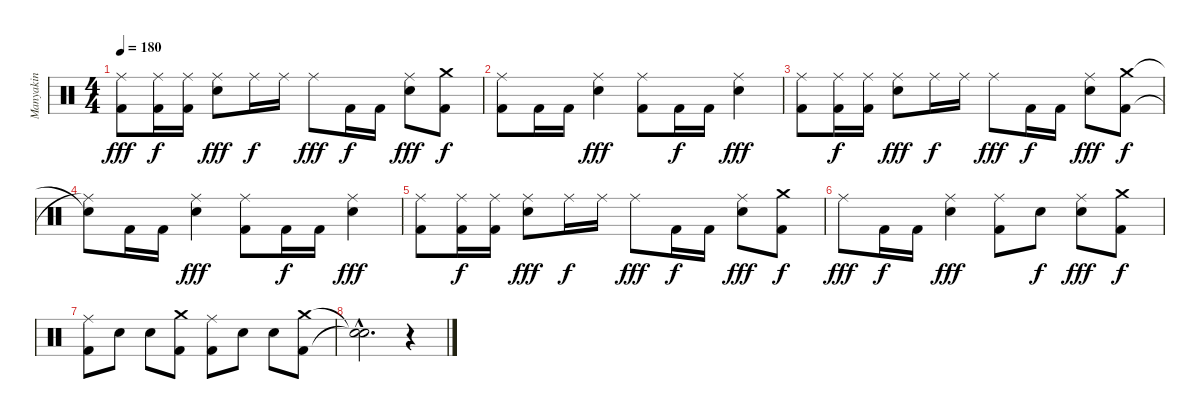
\track ("Manyakin" "Manyakin") {instrument percussion}
\staff {score}
\articulation defaults
\ts (4 4)
\tempo 180
\clef neutral
\ks c
("Kick (hit) 2" "Ride (middle)").8{dy fff} ("Kick (hit) 2" "Ride (middle)").16{dy f} ("Kick (hit) 2" "Ride (middle)").16 ("Snare (hit) 2" "Ride (middle)").8{dy fff} "Ride (middle)".16{dy f} "Ride (middle)".16 "Ride (middle)".8{dy fff} "Kick (hit) 2".16{dy f} "Kick (hit) 2".16 ("Snare (hit) 2" "Ride (middle)").8{dy fff} ("Kick (hit) 2" "Crash medium (hit)").8{dy f} |
("Ride (middle)" "Kick (hit) 2").8 "Kick (hit) 2".16 "Kick (hit) 2".16 ("Snare (hit) 2" "Ride (middle)").4{dy fff} ("Kick (hit) 2" "Ride (middle)").8 "Kick (hit) 2".16{dy f} "Kick (hit) 2".16 ("Snare (hit) 2" "Ride (middle)").4{dy fff} |
("Kick (hit) 2" "Ride (middle)").8 ("Kick (hit) 2" "Ride (middle)").16{dy f} ("Kick (hit) 2" "Ride (middle)").16 ("Snare (hit) 2" "Ride (middle)").8{dy fff} "Ride (middle)".16{dy f} "Ride (middle)".16 "Ride (middle)".8{dy fff} "Kick (hit) 2".16{dy f} "Kick (hit) 2".16 ("Snare (hit) 2" "Ride (middle)").8{dy fff} ("Kick (hit) 2" "Crash medium (hit)").8{dy f} |
("Ride (middle)"{t} "Snare (hit)"{t}).8 "Kick (hit) 2".16 "Kick (hit) 2".16 ("Snare (hit) 2" "Ride (middle)").4{dy fff} ("Kick (hit) 2" "Ride (middle)").8 "Kick (hit) 2".16{dy f} "Kick (hit) 2".16 ("Snare (hit) 2" "Ride (middle)").4{dy fff} |
("Kick (hit) 2" "Ride (middle)").8 ("Kick (hit) 2" "Ride (middle)").16{dy f} ("Kick (hit) 2" "Ride (middle)").16 ("Snare (hit) 2" "Ride (middle)").8{dy fff} "Ride (middle)".16{dy f} "Ride (middle)".16 "Ride (middle)".8{dy fff} "Kick (hit) 2".16{dy f} "Kick (hit) 2".16 ("Snare (hit) 2" "Ride (middle)").8{dy fff} ("Kick (hit) 2" "Crash medium (hit)").8{dy f} |
"Ride (middle)".8{dy fff} "Kick (hit) 2".16{dy f} "Kick (hit) 2".16 ("Snare (hit) 2" "Ride (middle)").4{dy fff} ("Kick (hit) 2" "Ride (middle)").8 "Snare (hit) 2".8{dy f} ("Snare (hit) 2" "Ride (middle)").8{dy fff} ("Kick (hit) 2" "Crash medium (hit)").8{dy f} |
("Kick (hit) 2" "Ride (middle)").8 "Snare (hit) 2".8 "Snare (hit) 2".8 ("Kick (hit) 2" "Crash medium (hit)").8 ("Kick (hit) 2" "Ride (middle)").8 "Snare (hit) 2".8 "Snare (hit) 2".8 ("Kick (hit) 2" "Crash medium (hit)").8 |
("Snare (hit)"{hac t} "Snare (hit)"{hac t}).2{d} r.4
